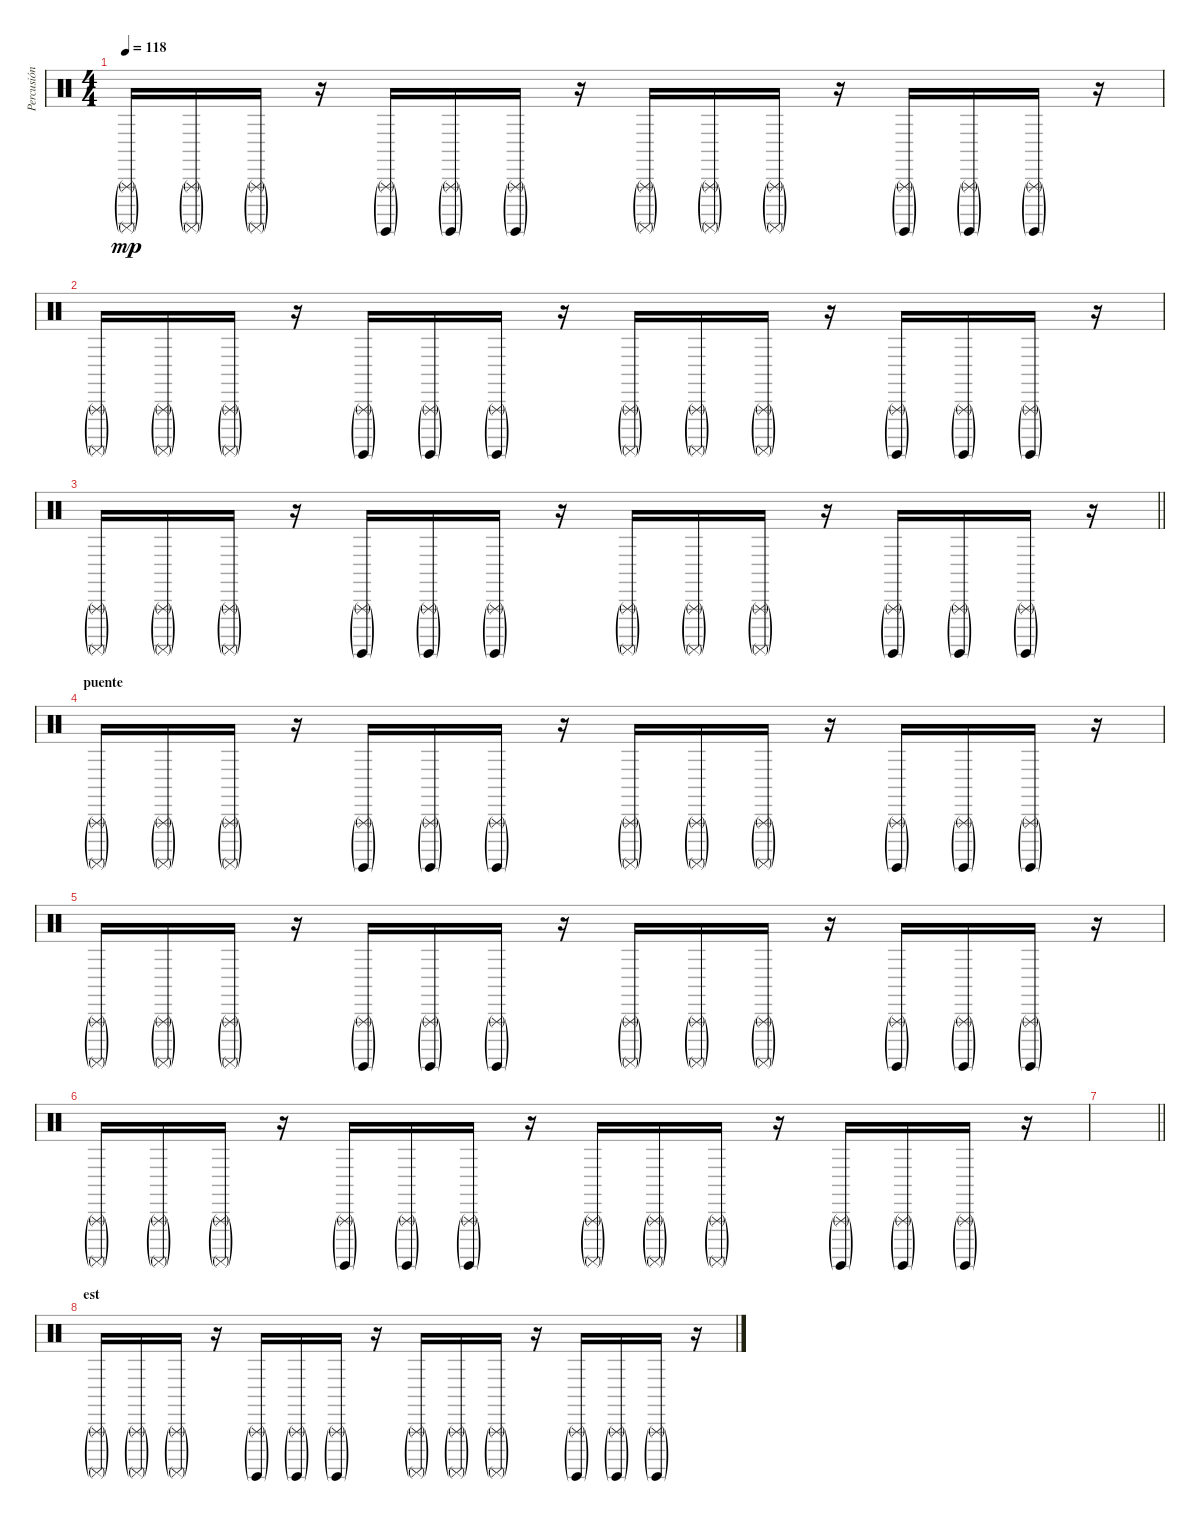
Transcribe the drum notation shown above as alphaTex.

\track ("Percusión" "Percusión") {instrument percussion}
\staff {score}
\articulation defaults
\ts (4 4)
\tempo 118
\clef neutral
\ks c
("Triangle (rnute)"{g} "Surdo (mute)"{g}).16{dy mp} ("Triangle (rnute)"{g} "Surdo (mute)"{g}).16 ("Triangle (rnute)"{g} "Surdo (mute)"{g}).16 r.16 ("Triangle (rnute)"{g} "Surdo (hit)"{g}).16 ("Triangle (rnute)"{g} "Surdo (hit)"{g}).16 ("Triangle (rnute)"{g} "Surdo (hit)"{g}).16 r.16 ("Triangle (rnute)"{g} "Surdo (mute)"{g}).16 ("Triangle (rnute)"{g} "Surdo (mute)"{g}).16 ("Triangle (rnute)"{g} "Surdo (mute)"{g}).16 r.16 ("Triangle (rnute)"{g} "Surdo (hit)"{g}).16 ("Triangle (rnute)"{g} "Surdo (hit)"{g}).16 ("Triangle (rnute)"{g} "Surdo (hit)"{g}).16 r.16 |
("Triangle (rnute)"{g} "Surdo (mute)"{g}).16 ("Triangle (rnute)"{g} "Surdo (mute)"{g}).16 ("Triangle (rnute)"{g} "Surdo (mute)"{g}).16 r.16 ("Triangle (rnute)"{g} "Surdo (hit)"{g}).16 ("Triangle (rnute)"{g} "Surdo (hit)"{g}).16 ("Triangle (rnute)"{g} "Surdo (hit)"{g}).16 r.16 ("Triangle (rnute)"{g} "Surdo (mute)"{g}).16 ("Triangle (rnute)"{g} "Surdo (mute)"{g}).16 ("Triangle (rnute)"{g} "Surdo (mute)"{g}).16 r.16 ("Triangle (rnute)"{g} "Surdo (hit)"{g}).16 ("Triangle (rnute)"{g} "Surdo (hit)"{g}).16 ("Triangle (rnute)"{g} "Surdo (hit)"{g}).16 r.16 |
\barLineRight lightlight
("Triangle (rnute)"{g} "Surdo (mute)"{g}).16 ("Triangle (rnute)"{g} "Surdo (mute)"{g}).16 ("Triangle (rnute)"{g} "Surdo (mute)"{g}).16 r.16 ("Triangle (rnute)"{g} "Surdo (hit)"{g}).16 ("Triangle (rnute)"{g} "Surdo (hit)"{g}).16 ("Triangle (rnute)"{g} "Surdo (hit)"{g}).16 r.16 ("Triangle (rnute)"{g} "Surdo (mute)"{g}).16 ("Triangle (rnute)"{g} "Surdo (mute)"{g}).16 ("Triangle (rnute)"{g} "Surdo (mute)"{g}).16 r.16 ("Triangle (rnute)"{g} "Surdo (hit)"{g}).16 ("Triangle (rnute)"{g} "Surdo (hit)"{g}).16 ("Triangle (rnute)"{g} "Surdo (hit)"{g}).16 r.16 |
\section ("" "puente")
("Triangle (rnute)"{g} "Surdo (mute)"{g}).16 ("Triangle (rnute)"{g} "Surdo (mute)"{g}).16 ("Triangle (rnute)"{g} "Surdo (mute)"{g}).16 r.16 ("Triangle (rnute)"{g} "Surdo (hit)"{g}).16 ("Triangle (rnute)"{g} "Surdo (hit)"{g}).16 ("Triangle (rnute)"{g} "Surdo (hit)"{g}).16 r.16 ("Triangle (rnute)"{g} "Surdo (mute)"{g}).16 ("Triangle (rnute)"{g} "Surdo (mute)"{g}).16 ("Triangle (rnute)"{g} "Surdo (mute)"{g}).16 r.16 ("Triangle (rnute)"{g} "Surdo (hit)"{g}).16 ("Triangle (rnute)"{g} "Surdo (hit)"{g}).16 ("Triangle (rnute)"{g} "Surdo (hit)"{g}).16 r.16 |
("Triangle (rnute)"{g} "Surdo (mute)"{g}).16 ("Triangle (rnute)"{g} "Surdo (mute)"{g}).16 ("Triangle (rnute)"{g} "Surdo (mute)"{g}).16 r.16 ("Triangle (rnute)"{g} "Surdo (hit)"{g}).16 ("Triangle (rnute)"{g} "Surdo (hit)"{g}).16 ("Triangle (rnute)"{g} "Surdo (hit)"{g}).16 r.16 ("Triangle (rnute)"{g} "Surdo (mute)"{g}).16 ("Triangle (rnute)"{g} "Surdo (mute)"{g}).16 ("Triangle (rnute)"{g} "Surdo (mute)"{g}).16 r.16 ("Triangle (rnute)"{g} "Surdo (hit)"{g}).16 ("Triangle (rnute)"{g} "Surdo (hit)"{g}).16 ("Triangle (rnute)"{g} "Surdo (hit)"{g}).16 r.16 |
("Triangle (rnute)"{g} "Surdo (mute)"{g}).16 ("Triangle (rnute)"{g} "Surdo (mute)"{g}).16 ("Triangle (rnute)"{g} "Surdo (mute)"{g}).16 r.16 ("Triangle (rnute)"{g} "Surdo (hit)"{g}).16 ("Triangle (rnute)"{g} "Surdo (hit)"{g}).16 ("Triangle (rnute)"{g} "Surdo (hit)"{g}).16 r.16 ("Triangle (rnute)"{g} "Surdo (mute)"{g}).16 ("Triangle (rnute)"{g} "Surdo (mute)"{g}).16 ("Triangle (rnute)"{g} "Surdo (mute)"{g}).16 r.16 ("Triangle (rnute)"{g} "Surdo (hit)"{g}).16 ("Triangle (rnute)"{g} "Surdo (hit)"{g}).16 ("Triangle (rnute)"{g} "Surdo (hit)"{g}).16 r.16 |
\barLineRight lightlight
|
\section ("" "est")
("Triangle (rnute)"{g} "Surdo (mute)"{g}).16 ("Triangle (rnute)"{g} "Surdo (mute)"{g}).16 ("Triangle (rnute)"{g} "Surdo (mute)"{g}).16 r.16 ("Triangle (rnute)"{g} "Surdo (hit)"{g}).16 ("Triangle (rnute)"{g} "Surdo (hit)"{g}).16 ("Triangle (rnute)"{g} "Surdo (hit)"{g}).16 r.16 ("Triangle (rnute)"{g} "Surdo (mute)"{g}).16 ("Triangle (rnute)"{g} "Surdo (mute)"{g}).16 ("Triangle (rnute)"{g} "Surdo (mute)"{g}).16 r.16 ("Triangle (rnute)"{g} "Surdo (hit)"{g}).16 ("Triangle (rnute)"{g} "Surdo (hit)"{g}).16 ("Triangle (rnute)"{g} "Surdo (hit)"{g}).16 r.16
